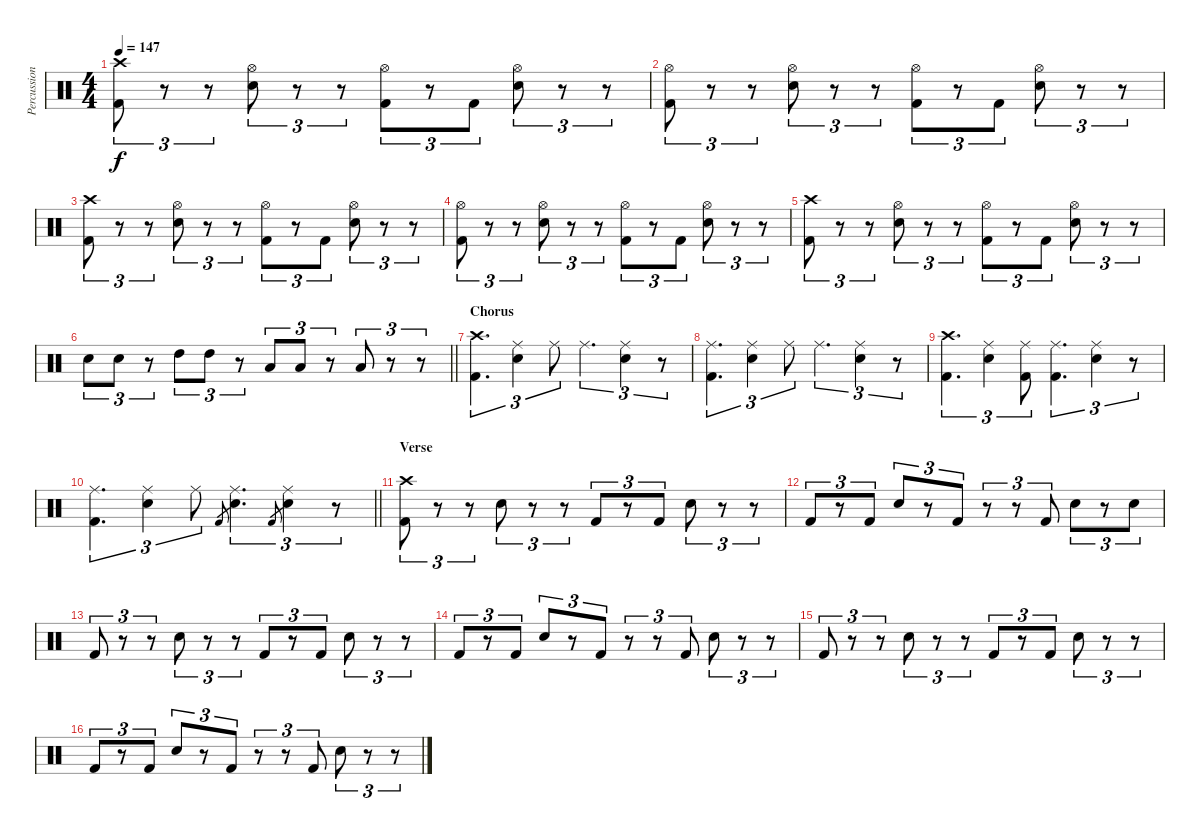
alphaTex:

\track ("Percussion" "Percussion") {instrument percussion}
\staff {score}
\articulation defaults
\ts (4 4)
\tempo 147
\clef neutral
\ks c
("Crash high (hit)" "Kick (hit) 2").8{tu (3 2) dy f} r.8{tu (3 2)} r.8{tu (3 2)} ("Hi-Hat (open)" "Electric Snare (hit)").8{tu (3 2)} r.8{tu (3 2)} r.8{tu (3 2)} ("Hi-Hat (open)" "Kick (hit) 2").8{tu (3 2)} r.8{tu (3 2)} "Kick (hit) 2".8{tu (3 2)} ("Hi-Hat (open)" "Electric Snare (hit)").8{tu (3 2)} r.8{tu (3 2)} r.8{tu (3 2)} |
("Hi-Hat (open)" "Kick (hit) 2").8{tu (3 2)} r.8{tu (3 2)} r.8{tu (3 2)} ("Hi-Hat (open)" "Electric Snare (hit)").8{tu (3 2)} r.8{tu (3 2)} r.8{tu (3 2)} ("Hi-Hat (open)" "Kick (hit) 2").8{tu (3 2)} r.8{tu (3 2)} "Kick (hit) 2".8{tu (3 2)} ("Hi-Hat (open)" "Electric Snare (hit)").8{tu (3 2)} r.8{tu (3 2)} r.8{tu (3 2)} |
("Crash high (hit)" "Kick (hit) 2").8{tu (3 2)} r.8{tu (3 2)} r.8{tu (3 2)} ("Hi-Hat (open)" "Electric Snare (hit)").8{tu (3 2)} r.8{tu (3 2)} r.8{tu (3 2)} ("Hi-Hat (open)" "Kick (hit) 2").8{tu (3 2)} r.8{tu (3 2)} "Kick (hit) 2".8{tu (3 2)} ("Hi-Hat (open)" "Electric Snare (hit)").8{tu (3 2)} r.8{tu (3 2)} r.8{tu (3 2)} |
("Hi-Hat (open)" "Kick (hit) 2").8{tu (3 2)} r.8{tu (3 2)} r.8{tu (3 2)} ("Hi-Hat (open)" "Electric Snare (hit)").8{tu (3 2)} r.8{tu (3 2)} r.8{tu (3 2)} ("Hi-Hat (open)" "Kick (hit) 2").8{tu (3 2)} r.8{tu (3 2)} "Kick (hit) 2".8{tu (3 2)} ("Hi-Hat (open)" "Electric Snare (hit)").8{tu (3 2)} r.8{tu (3 2)} r.8{tu (3 2)} |
("Crash high (hit)" "Kick (hit) 2").8{tu (3 2)} r.8{tu (3 2)} r.8{tu (3 2)} ("Hi-Hat (open)" "Electric Snare (hit)").8{tu (3 2)} r.8{tu (3 2)} r.8{tu (3 2)} ("Hi-Hat (open)" "Kick (hit) 2").8{tu (3 2)} r.8{tu (3 2)} "Kick (hit) 2".8{tu (3 2)} ("Hi-Hat (open)" "Electric Snare (hit)").8{tu (3 2)} r.8{tu (3 2)} r.8{tu (3 2)} |
\barLineRight lightlight "Electric Snare (hit)".8{tu (3 2)} "Electric Snare (hit)".8{tu (3 2)}
r.8{tu (3 2)} "High Tom (hit)".8{tu (3 2)} "High Tom (hit)".8{tu (3 2)} r.8{tu (3 2)} "Low Tom (hit)".8{tu (3 2)} "Low Tom (hit)".8{tu (3 2)} r.8{tu (3 2)} "Low Floor Tom (hit)".8{tu (3 2)} r.8{tu (3 2)} r.8{tu (3 2)} |
\section ("" "Chorus")
("Crash high (hit)" "Kick (hit) 2").4{d tu (3 2)} ("Ride (middle)" "Electric Snare (hit)").4{tu (3 2)} "Ride (middle)".8{tu (3 2)} "Ride (middle)".4{d tu (3 2)} ("Ride (middle)" "Electric Snare (hit)").4{tu (3 2)} r.8{tu (3 2)} |
("Ride (middle)" "Kick (hit) 2").4{d tu (3 2)} ("Ride (middle)" "Electric Snare (hit)").4{tu (3 2)} "Ride (middle)".8{tu (3 2)} "Ride (middle)".4{d tu (3 2)} ("Ride (middle)" "Electric Snare (hit)").4{tu (3 2)} r.8{tu (3 2)} |
("Crash high (hit)" "Kick (hit) 2").4{d tu (3 2)} ("Ride (middle)" "Electric Snare (hit)").4{tu (3 2)} ("Ride (middle)" "Kick (hit) 2").8{tu (3 2)} ("Ride (middle)" "Kick (hit) 2").4{d tu (3 2)} ("Ride (middle)" "Electric Snare (hit)").4{tu (3 2)} r.8{tu (3 2)} |
\barLineRight lightlight
("Ride (middle)" "Kick (hit) 2").4{d tu (3 2)} ("Ride (middle)" "Electric Snare (hit)").4{tu (3 2)} "Ride (middle)".8{tu (3 2)} "Kick (hit) 2".8{gr} ("Ride (middle)" "Electric Snare (hit)").4{d tu (3 2)} "Kick (hit) 2".8{gr} ("Ride (middle)" "Electric Snare (hit)").4{tu (3 2)} r.8{tu (3 2)} |
\section ("" "Verse")
("Crash high (hit)" "Kick (hit) 2").8{tu (3 2)} r.8{tu (3 2)} r.8{tu (3 2)} "Electric Snare (hit)".8{tu (3 2)} r.8{tu (3 2)} r.8{tu (3 2)} "Kick (hit) 2".8{tu (3 2)} r.8{tu (3 2)} "Kick (hit) 2".8{tu (3 2)} "Electric Snare (hit)".8{tu (3 2)} r.8{tu (3 2)} r.8{tu (3 2)} |
"Kick (hit) 2".8{tu (3 2)} r.8{tu (3 2)} "Kick (hit) 2".8{tu (3 2)} "Electric Snare (hit)".8{tu (3 2)} r.8{tu (3 2)} "Kick (hit) 2".8{tu (3 2)} r.8{tu (3 2)} r.8{tu (3 2)} "Kick (hit) 2".8{tu (3 2)} "Electric Snare (hit)".8{tu (3 2)} r.8{tu (3 2)} "Electric Snare (hit)".8{tu (3 2)} |
"Kick (hit) 2".8{tu (3 2)} r.8{tu (3 2)} r.8{tu (3 2)} "Electric Snare (hit)".8{tu (3 2)} r.8{tu (3 2)} r.8{tu (3 2)} "Kick (hit) 2".8{tu (3 2)} r.8{tu (3 2)} "Kick (hit) 2".8{tu (3 2)} "Electric Snare (hit)".8{tu (3 2)} r.8{tu (3 2)} r.8{tu (3 2)} |
"Kick (hit) 2".8{tu (3 2)} r.8{tu (3 2)} "Kick (hit) 2".8{tu (3 2)} "Electric Snare (hit)".8{tu (3 2)} r.8{tu (3 2)} "Kick (hit) 2".8{tu (3 2)} r.8{tu (3 2)} r.8{tu (3 2)} "Kick (hit) 2".8{tu (3 2)} "Electric Snare (hit)".8{tu (3 2)} r.8{tu (3 2)} r.8{tu (3 2)} |
"Kick (hit) 2".8{tu (3 2)} r.8{tu (3 2)} r.8{tu (3 2)} "Electric Snare (hit)".8{tu (3 2)} r.8{tu (3 2)} r.8{tu (3 2)} "Kick (hit) 2".8{tu (3 2)} r.8{tu (3 2)} "Kick (hit) 2".8{tu (3 2)} "Electric Snare (hit)".8{tu (3 2)} r.8{tu (3 2)} r.8{tu (3 2)} |
"Kick (hit) 2".8{tu (3 2)} r.8{tu (3 2)} "Kick (hit) 2".8{tu (3 2)} "Electric Snare (hit)".8{tu (3 2)} r.8{tu (3 2)} "Kick (hit) 2".8{tu (3 2)} r.8{tu (3 2)} r.8{tu (3 2)} "Kick (hit) 2".8{tu (3 2)} "Electric Snare (hit)".8{tu (3 2)} r.8{tu (3 2)} r.8{tu (3 2)}
